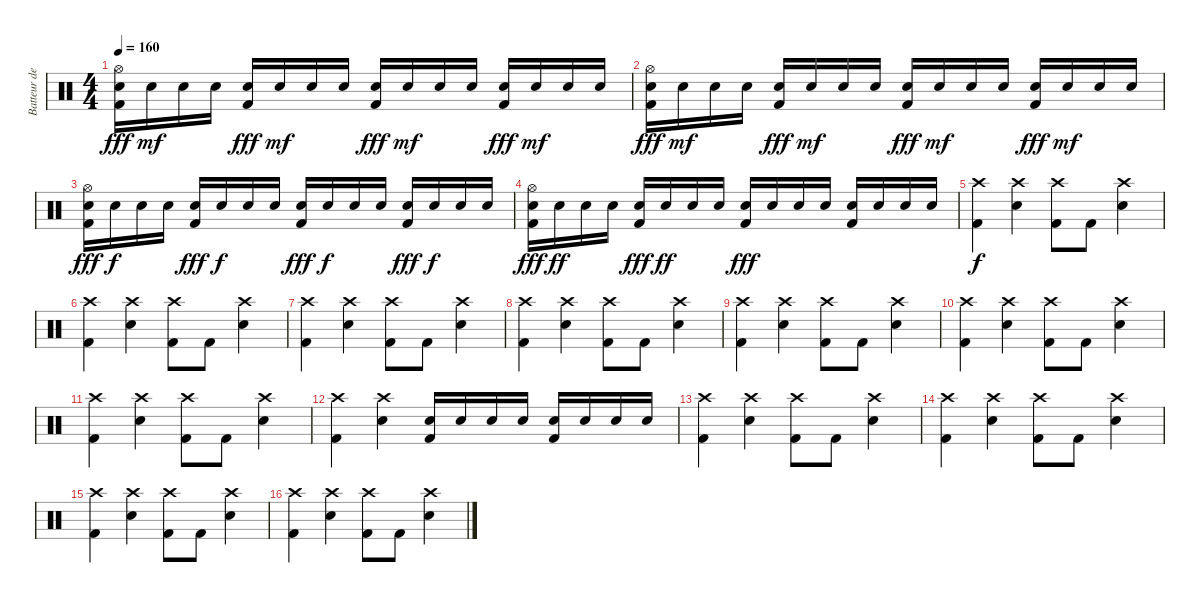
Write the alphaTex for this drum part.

\track ("Batteur de G.C" "Batteur de") {instrument percussion}
\staff {score}
\articulation defaults
\ts (4 4)
\tempo 160
\clef neutral
\ks c
("Hi-Hat (open)" "Electric Snare (hit)" "Kick (hit) 2").16{dy fff} "Electric Snare (hit)".16{dy mf} "Electric Snare (hit)".16 "Electric Snare (hit)".16 ("Electric Snare (hit)" "Kick (hit) 2").16{dy fff} "Electric Snare (hit)".16{dy mf} "Electric Snare (hit)".16 "Electric Snare (hit)".16 ("Electric Snare (hit)" "Kick (hit) 2").16{dy fff} "Electric Snare (hit)".16{dy mf} "Electric Snare (hit)".16 "Electric Snare (hit)".16 ("Electric Snare (hit)" "Kick (hit) 2").16{dy fff} "Electric Snare (hit)".16{dy mf} "Electric Snare (hit)".16 "Electric Snare (hit)".16 |
("Hi-Hat (open)" "Electric Snare (hit)" "Kick (hit) 2").16{dy fff} "Electric Snare (hit)".16{dy mf} "Electric Snare (hit)".16 "Electric Snare (hit)".16 ("Electric Snare (hit)" "Kick (hit) 2").16{dy fff} "Electric Snare (hit)".16{dy mf} "Electric Snare (hit)".16 "Electric Snare (hit)".16 ("Electric Snare (hit)" "Kick (hit) 2").16{dy fff} "Electric Snare (hit)".16{dy mf} "Electric Snare (hit)".16 "Electric Snare (hit)".16 ("Electric Snare (hit)" "Kick (hit) 2").16{dy fff} "Electric Snare (hit)".16{dy mf} "Electric Snare (hit)".16 "Electric Snare (hit)".16 |
("Hi-Hat (open)" "Electric Snare (hit)" "Kick (hit) 2").16{dy fff} "Electric Snare (hit)".16{dy f} "Electric Snare (hit)".16 "Electric Snare (hit)".16 ("Electric Snare (hit)" "Kick (hit) 2").16{dy fff} "Electric Snare (hit)".16{dy f} "Electric Snare (hit)".16 "Electric Snare (hit)".16 ("Electric Snare (hit)" "Kick (hit) 2").16{dy fff} "Electric Snare (hit)".16{dy f} "Electric Snare (hit)".16 "Electric Snare (hit)".16 ("Electric Snare (hit)" "Kick (hit) 2").16{dy fff} "Electric Snare (hit)".16{dy f} "Electric Snare (hit)".16 "Electric Snare (hit)".16 |
("Hi-Hat (open)" "Electric Snare (hit)" "Kick (hit) 2").16{dy fff} "Electric Snare (hit)".16{dy ff} "Electric Snare (hit)".16 "Electric Snare (hit)".16 ("Electric Snare (hit)" "Kick (hit) 2").16{dy fff} "Electric Snare (hit)".16{dy ff} "Electric Snare (hit)".16 "Electric Snare (hit)".16 ("Electric Snare (hit)" "Kick (hit) 2").16{dy fff} "Electric Snare (hit)".16 "Electric Snare (hit)".16 "Electric Snare (hit)".16 ("Electric Snare (hit)" "Kick (hit) 2").16 "Electric Snare (hit)".16 "Electric Snare (hit)".16 "Electric Snare (hit)".16 |
("Crash high (hit)" "Kick (hit) 2").4{dy f} ("Crash high (hit)" "Electric Snare (hit)").4 ("Crash high (hit)" "Kick (hit) 2").8 "Kick (hit) 2".8 ("Crash high (hit)" "Electric Snare (hit)").4 |
("Crash high (hit)" "Kick (hit) 2").4 ("Crash high (hit)" "Electric Snare (hit)").4 ("Crash high (hit)" "Kick (hit) 2").8 "Kick (hit) 2".8 ("Crash high (hit)" "Electric Snare (hit)").4 |
("Crash high (hit)" "Kick (hit) 2").4 ("Crash high (hit)" "Electric Snare (hit)").4 ("Crash high (hit)" "Kick (hit) 2").8 "Kick (hit) 2".8 ("Crash high (hit)" "Electric Snare (hit)").4 |
("Crash high (hit)" "Kick (hit) 2").4 ("Crash high (hit)" "Electric Snare (hit)").4 ("Crash high (hit)" "Kick (hit) 2").8 "Kick (hit) 2".8 ("Crash high (hit)" "Electric Snare (hit)").4 |
("Crash high (hit)" "Kick (hit) 2").4 ("Crash high (hit)" "Electric Snare (hit)").4 ("Crash high (hit)" "Kick (hit) 2").8 "Kick (hit) 2".8 ("Crash high (hit)" "Electric Snare (hit)").4 |
("Crash high (hit)" "Kick (hit) 2").4 ("Crash high (hit)" "Electric Snare (hit)").4 ("Crash high (hit)" "Kick (hit) 2").8 "Kick (hit) 2".8 ("Crash high (hit)" "Electric Snare (hit)").4 |
("Crash high (hit)" "Kick (hit) 2").4 ("Crash high (hit)" "Electric Snare (hit)").4 ("Crash high (hit)" "Kick (hit) 2").8 "Kick (hit) 2".8 ("Crash high (hit)" "Electric Snare (hit)").4 |
("Crash high (hit)" "Kick (hit) 2").4 ("Crash high (hit)" "Electric Snare (hit)").4 ("Electric Snare (hit)" "Kick (hit) 2").16 "Electric Snare (hit)".16 "Electric Snare (hit)".16 "Electric Snare (hit)".16 ("Electric Snare (hit)" "Kick (hit) 2").16 "Electric Snare (hit)".16 "Electric Snare (hit)".16 "Electric Snare (hit)".16 |
("Crash high (hit)" "Kick (hit) 2").4 ("Crash high (hit)" "Electric Snare (hit)").4 ("Crash high (hit)" "Kick (hit) 2").8 "Kick (hit) 2".8 ("Crash high (hit)" "Electric Snare (hit)").4 |
("Crash high (hit)" "Kick (hit) 2").4 ("Crash high (hit)" "Electric Snare (hit)").4 ("Crash high (hit)" "Kick (hit) 2").8 "Kick (hit) 2".8 ("Crash high (hit)" "Electric Snare (hit)").4 |
("Crash high (hit)" "Kick (hit) 2").4 ("Crash high (hit)" "Electric Snare (hit)").4 ("Crash high (hit)" "Kick (hit) 2").8 "Kick (hit) 2".8 ("Crash high (hit)" "Electric Snare (hit)").4 |
("Crash high (hit)" "Kick (hit) 2").4 ("Crash high (hit)" "Electric Snare (hit)").4 ("Crash high (hit)" "Kick (hit) 2").8 "Kick (hit) 2".8 ("Crash high (hit)" "Electric Snare (hit)").4
